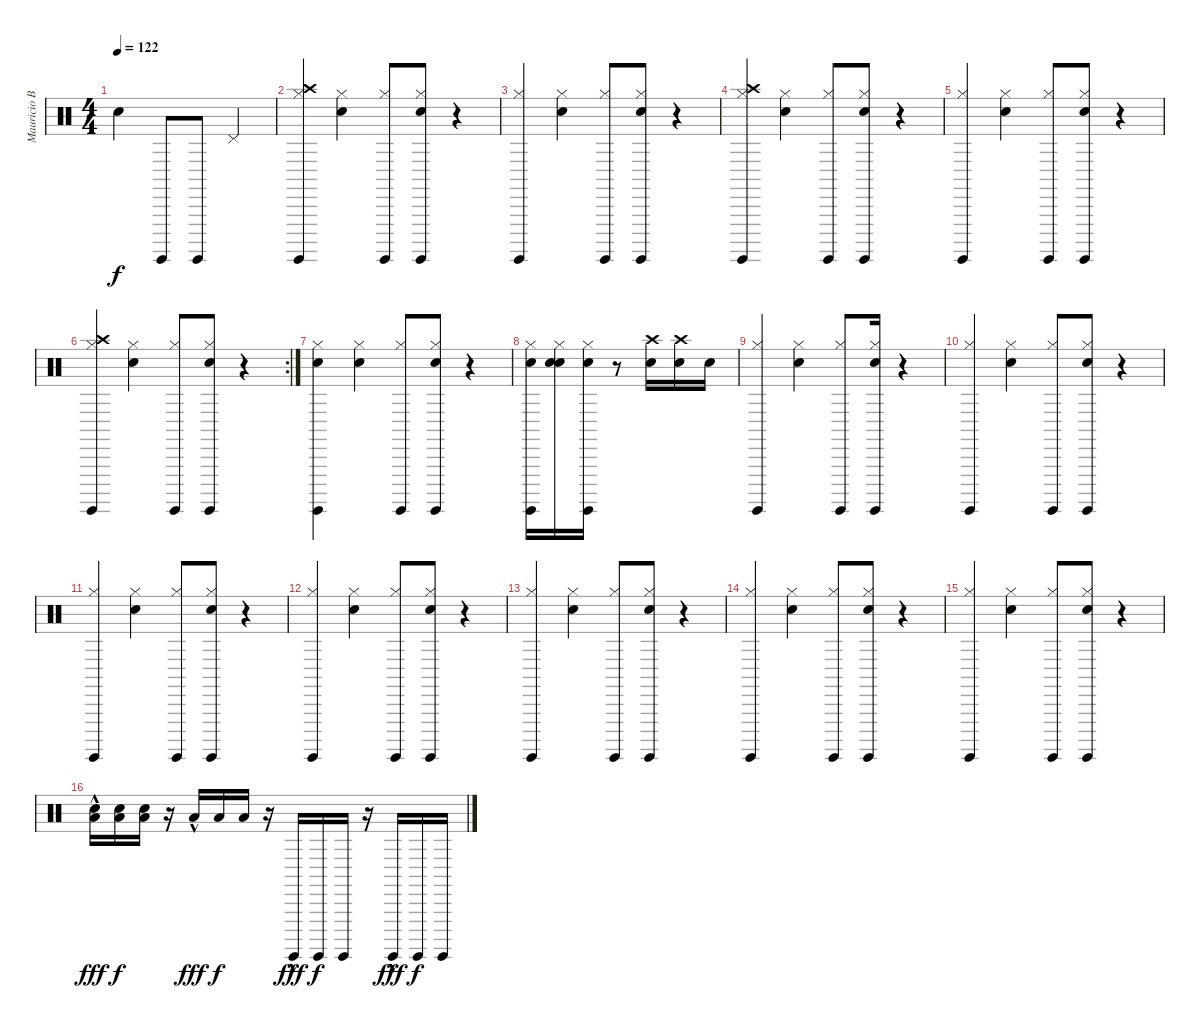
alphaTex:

\track ("Mauricio Basualto" "Mauricio B") {instrument percussion}
\staff {score}
\articulation defaults
\ts (4 4)
\tempo 122
\clef neutral
\ks c "Snare (hit) 2".4{dy f} "Surdo (hit)".8 "Surdo (hit)".8 "Pedal Hi-Hat (hit)".4
|
("Surdo (hit)" "Hi-Hat (closed)" "Crash high (hit)").4 ("Hi-Hat (closed)" "Snare (hit) 2").4 ("Surdo (hit)" "Hi-Hat (closed)").8 ("Surdo (hit)" "Hi-Hat (closed)" "Snare (hit) 2").8 r.4 |
("Surdo (hit)" "Hi-Hat (closed)").4 ("Hi-Hat (closed)" "Snare (hit) 2").4 ("Surdo (hit)" "Hi-Hat (closed)").8 ("Surdo (hit)" "Hi-Hat (closed)" "Snare (hit) 2").8 r.4 |
("Surdo (hit)" "Hi-Hat (closed)" "Crash high (hit)").4 ("Hi-Hat (closed)" "Snare (hit) 2").4 ("Surdo (hit)" "Hi-Hat (closed)").8 ("Surdo (hit)" "Hi-Hat (closed)" "Snare (hit) 2").8 r.4 |
("Surdo (hit)" "Hi-Hat (closed)").4 ("Hi-Hat (closed)" "Snare (hit) 2").4 ("Surdo (hit)" "Hi-Hat (closed)").8 ("Surdo (hit)" "Hi-Hat (closed)" "Snare (hit) 2").8 r.4 |
\rc 2
("Surdo (hit)" "Hi-Hat (closed)" "Crash high (hit)").4 ("Hi-Hat (closed)" "Snare (hit) 2").4 ("Surdo (hit)" "Hi-Hat (closed)").8 ("Surdo (hit)" "Hi-Hat (closed)" "Snare (hit) 2").8 r.4 |
("Surdo (hit)" "Hi-Hat (closed)" "Snare (hit) 2").4 ("Hi-Hat (closed)" "Snare (hit) 2").4 ("Surdo (hit)" "Hi-Hat (closed)").8 ("Surdo (hit)" "Hi-Hat (closed)" "Snare (hit) 2").8 r.4 |
("Surdo (hit)" "Hi-Hat (closed)" "Snare (hit) 2").16 ("Hi-Hat (closed)" "Snare (hit) 2" "Snare (hit) 2").16 ("Surdo (hit)" "Hi-Hat (closed)" "Snare (hit) 2").16 r.8 ("Crash high (hit)" "Snare (hit) 2").16 ("Crash high (hit)" "Snare (hit) 2").16 "Snare (hit) 2".16 |
("Surdo (hit)" "Hi-Hat (closed)").4 ("Hi-Hat (closed)" "Snare (hit) 2").4 ("Surdo (hit)" "Hi-Hat (closed)").8 ("Surdo (hit)" "Hi-Hat (closed)" "Snare (hit) 2").16 r.4 |
("Surdo (hit)" "Hi-Hat (closed)").4 ("Hi-Hat (closed)" "Snare (hit) 2").4 ("Surdo (hit)" "Hi-Hat (closed)").8 ("Surdo (hit)" "Hi-Hat (closed)" "Snare (hit) 2").8 r.4 |
("Surdo (hit)" "Hi-Hat (closed)").4 ("Hi-Hat (closed)" "Snare (hit) 2").4 ("Surdo (hit)" "Hi-Hat (closed)").8 ("Surdo (hit)" "Hi-Hat (closed)" "Snare (hit) 2").8 r.4 |
("Surdo (hit)" "Hi-Hat (closed)").4 ("Hi-Hat (closed)" "Snare (hit) 2").4 ("Surdo (hit)" "Hi-Hat (closed)").8 ("Surdo (hit)" "Hi-Hat (closed)" "Snare (hit) 2").8 r.4 |
("Surdo (hit)" "Hi-Hat (closed)").4 ("Hi-Hat (closed)" "Snare (hit) 2").4 ("Surdo (hit)" "Hi-Hat (closed)").8 ("Surdo (hit)" "Hi-Hat (closed)" "Snare (hit) 2").8 r.4 |
("Surdo (hit)" "Hi-Hat (closed)").4 ("Hi-Hat (closed)" "Snare (hit) 2").4 ("Surdo (hit)" "Hi-Hat (closed)").8 ("Surdo (hit)" "Hi-Hat (closed)" "Snare (hit) 2").8 r.4 |
("Surdo (hit)" "Hi-Hat (closed)").4 ("Hi-Hat (closed)" "Snare (hit) 2").4 ("Surdo (hit)" "Hi-Hat (closed)").8 ("Surdo (hit)" "Hi-Hat (closed)" "Snare (hit) 2").8 r.4 |
("Low Tom (hit)"{hac} "Snare (hit) 2").16{dy fff} ("Low Tom (hit)" "Snare (hit) 2").16{dy f} ("Low Tom (hit)" "Snare (hit) 2").16 r.16 "Low Tom (hit)"{hac}.16{dy fff} "Low Tom (hit)".16{dy f} "Low Tom (hit)".16 r.16 "Surdo (hit)"{hac}.16{dy fff} "Surdo (hit)".16{dy f} "Surdo (hit)".16 r.16 "Surdo (hit)"{hac}.16{dy fff} "Surdo (hit)".16{dy f} "Surdo (hit)".16
